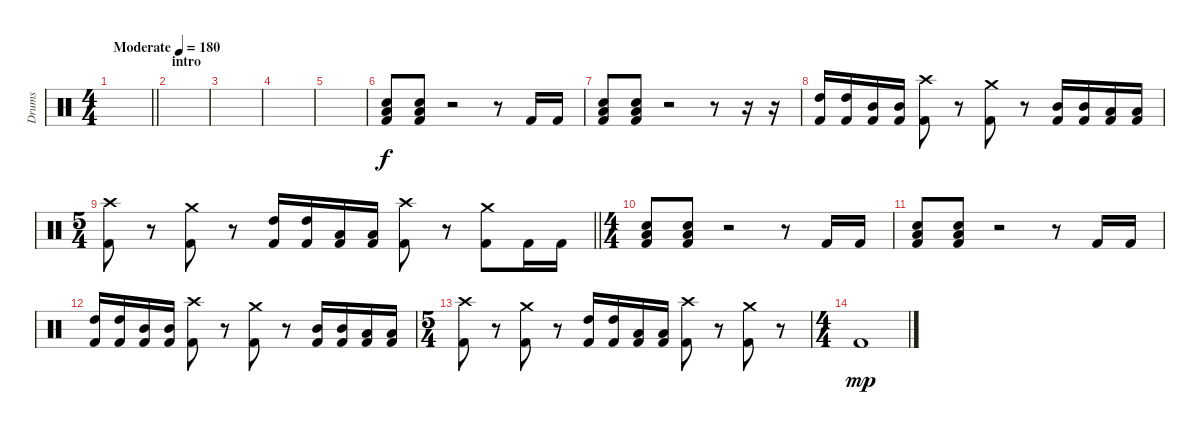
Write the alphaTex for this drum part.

\track ("Drums" "Drums") {instrument percussion}
\staff {score}
\articulation defaults
\ts (4 4)
\tempo (180 "Moderate")
\clef neutral
\barLineRight lightlight
\ks c
|
\section ("" "intro")
|
|
|
|
("Electric Snare (hit)" "Low Tom (hit)" "Kick (hit) 2").8 ("Electric Snare (hit)" "Low Tom (hit)" "Kick (hit) 2").8 r.2 r.8 "Kick (hit) 2".16 "Kick (hit) 2".16 |
("Electric Snare (hit)" "Low Tom (hit)" "Kick (hit) 2").8 ("Electric Snare (hit)" "Low Tom (hit)" "Kick (hit) 2").8 r.2 r.8 r.16 r.16 |
("High Tom (hit)" "Kick (hit) 2").16 ("High Tom (hit)" "Kick (hit) 2").16 ("Mid Tom (hit)" "Kick (hit) 2").16 ("Mid Tom (hit)" "Kick (hit) 2").16 ("Crash high (hit)" "Kick (hit) 2").8 r.8{volume 0} ("Crash medium (hit)" "Kick (hit) 2").8{volume 13} r.8{volume 0} ("Mid Tom (hit)" "Kick (hit) 2").16{volume 16} ("Mid Tom (hit)" "Kick (hit) 2").16 ("Low Tom (hit)" "Kick (hit) 2").16 ("Low Tom (hit)" "Kick (hit) 2").16 |
\ts (5 4)
\barLineRight lightlight
("Crash high (hit)" "Kick (hit) 2").8 r.8{volume 0} ("Crash medium (hit)" "Kick (hit) 2").8{volume 13} r.8{volume 0} ("High Tom (hit)" "Kick (hit) 2").16{volume 16} ("High Tom (hit)" "Kick (hit) 2").16 ("Low Tom (hit)" "Kick (hit) 2").16 ("Low Tom (hit)" "Kick (hit) 2").16 ("Crash high (hit)" "Kick (hit) 2").8 r.8{volume 0} ("Crash medium (hit)" "Kick (hit) 2").8{volume 16} "Kick (hit) 2".16 "Kick (hit) 2".16 |
\ts (4 4)
("Electric Snare (hit)" "Low Tom (hit)" "Kick (hit) 2").8{volume 13} ("Electric Snare (hit)" "Low Tom (hit)" "Kick (hit) 2").8 r.2 r.8 "Kick (hit) 2".16 "Kick (hit) 2".16 |
("Electric Snare (hit)" "Low Tom (hit)" "Kick (hit) 2").8 ("Electric Snare (hit)" "Low Tom (hit)" "Kick (hit) 2").8 r.2 r.8 "Kick (hit) 2".16 "Kick (hit) 2".16 |
("High Tom (hit)" "Kick (hit) 2").16 ("High Tom (hit)" "Kick (hit) 2").16 ("Mid Tom (hit)" "Kick (hit) 2").16 ("Mid Tom (hit)" "Kick (hit) 2").16 ("Crash high (hit)" "Kick (hit) 2").8 r.8{volume 0} ("Crash medium (hit)" "Kick (hit) 2").8{volume 13} r.8{volume 0} ("Mid Tom (hit)" "Kick (hit) 2").16{volume 16} ("Mid Tom (hit)" "Kick (hit) 2").16 ("Low Tom (hit)" "Kick (hit) 2").16 ("Low Tom (hit)" "Kick (hit) 2").16 |
\ts (5 4)
("Crash high (hit)" "Kick (hit) 2").8 r.8{volume 0} ("Crash medium (hit)" "Kick (hit) 2").8{volume 13} r.8{volume 0} ("High Tom (hit)" "Kick (hit) 2").16{volume 16} ("High Tom (hit)" "Kick (hit) 2").16 ("Low Tom (hit)" "Kick (hit) 2").16 ("Low Tom (hit)" "Kick (hit) 2").16 ("Crash high (hit)" "Kick (hit) 2").8 r.8{volume 0} ("Crash medium (hit)" "Kick (hit) 2").8{volume 13} r.8{volume 0} |
\ts (4 4)
"Kick (hit) 2".1{dy mp volume 16}
